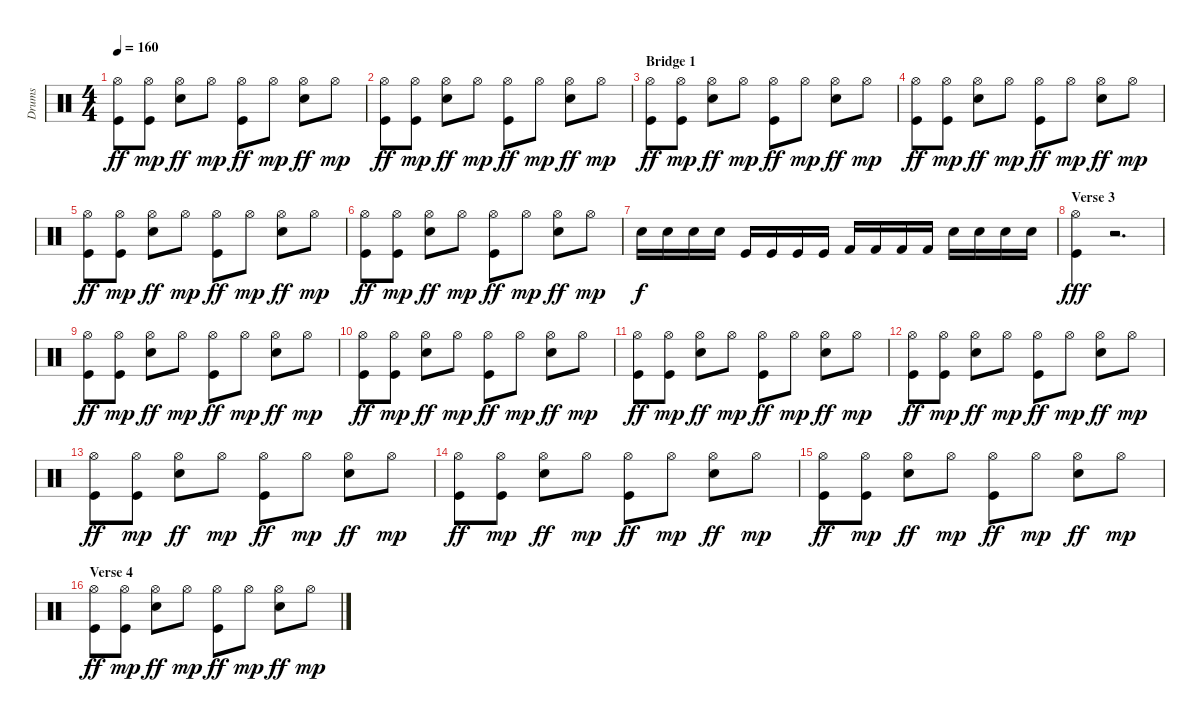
\track ("Drums" "Drums") {instrument percussion}
\staff {score}
\articulation defaults
\ts (4 4)
\tempo 160
\clef neutral
\ks c
("Kick (hit)" "Hi-Hat (open)").8{dy ff} ("Kick (hit)" "Hi-Hat (open)").8{dy mp} ("Electric Snare (hit)" "Hi-Hat (open)").8{dy ff} "Hi-Hat (open)".8{dy mp} ("Kick (hit)" "Hi-Hat (open)").8{dy ff} "Hi-Hat (open)".8{dy mp} ("Electric Snare (hit)" "Hi-Hat (open)").8{dy ff} "Hi-Hat (open)".8{dy mp} |
("Kick (hit)" "Hi-Hat (open)").8{dy ff} ("Kick (hit)" "Hi-Hat (open)").8{dy mp} ("Electric Snare (hit)" "Hi-Hat (open)").8{dy ff} "Hi-Hat (open)".8{dy mp} ("Kick (hit)" "Hi-Hat (open)").8{dy ff} "Hi-Hat (open)".8{dy mp} ("Electric Snare (hit)" "Hi-Hat (open)").8{dy ff} "Hi-Hat (open)".8{dy mp} |
\section ("" "Bridge 1")
("Kick (hit)" "Hi-Hat (open)").8{dy ff} ("Kick (hit)" "Hi-Hat (open)").8{dy mp} ("Electric Snare (hit)" "Hi-Hat (open)").8{dy ff} "Hi-Hat (open)".8{dy mp} ("Kick (hit)" "Hi-Hat (open)").8{dy ff} "Hi-Hat (open)".8{dy mp} ("Electric Snare (hit)" "Hi-Hat (open)").8{dy ff} "Hi-Hat (open)".8{dy mp} |
("Kick (hit)" "Hi-Hat (open)").8{dy ff} ("Kick (hit)" "Hi-Hat (open)").8{dy mp} ("Electric Snare (hit)" "Hi-Hat (open)").8{dy ff} "Hi-Hat (open)".8{dy mp} ("Kick (hit)" "Hi-Hat (open)").8{dy ff} "Hi-Hat (open)".8{dy mp} ("Electric Snare (hit)" "Hi-Hat (open)").8{dy ff} "Hi-Hat (open)".8{dy mp} |
("Kick (hit)" "Hi-Hat (open)").8{dy ff} ("Kick (hit)" "Hi-Hat (open)").8{dy mp} ("Electric Snare (hit)" "Hi-Hat (open)").8{dy ff} "Hi-Hat (open)".8{dy mp} ("Kick (hit)" "Hi-Hat (open)").8{dy ff} "Hi-Hat (open)".8{dy mp} ("Electric Snare (hit)" "Hi-Hat (open)").8{dy ff} "Hi-Hat (open)".8{dy mp} |
("Kick (hit)" "Hi-Hat (open)").8{dy ff} ("Kick (hit)" "Hi-Hat (open)").8{dy mp} ("Electric Snare (hit)" "Hi-Hat (open)").8{dy ff} "Hi-Hat (open)".8{dy mp} ("Kick (hit)" "Hi-Hat (open)").8{dy ff} "Hi-Hat (open)".8{dy mp} ("Electric Snare (hit)" "Hi-Hat (open)").8{dy ff} "Hi-Hat (open)".8{dy mp} |
"Electric Snare (hit)".16{dy f} "Electric Snare (hit)".16 "Electric Snare (hit)".16 "Electric Snare (hit)".16 "Kick (hit)".16 "Kick (hit)".16 "Kick (hit)".16 "Kick (hit)".16 "Kick (hit) 2".16 "Kick (hit) 2".16 "Kick (hit) 2".16 "Kick (hit) 2".16 "Electric Snare (hit)".16 "Electric Snare (hit)".16 "Electric Snare (hit)".16 "Electric Snare (hit)".16 |
\section ("" "Verse 3")
("Kick (hit)" "Hi-Hat (open)").4{dy fff} r.2{d} |
("Kick (hit)" "Hi-Hat (open)").8{dy ff} ("Kick (hit)" "Hi-Hat (open)").8{dy mp} ("Electric Snare (hit)" "Hi-Hat (open)").8{dy ff} "Hi-Hat (open)".8{dy mp} ("Kick (hit)" "Hi-Hat (open)").8{dy ff} "Hi-Hat (open)".8{dy mp} ("Electric Snare (hit)" "Hi-Hat (open)").8{dy ff} "Hi-Hat (open)".8{dy mp} |
("Kick (hit)" "Hi-Hat (open)").8{dy ff} ("Kick (hit)" "Hi-Hat (open)").8{dy mp} ("Electric Snare (hit)" "Hi-Hat (open)").8{dy ff} "Hi-Hat (open)".8{dy mp} ("Kick (hit)" "Hi-Hat (open)").8{dy ff} "Hi-Hat (open)".8{dy mp} ("Electric Snare (hit)" "Hi-Hat (open)").8{dy ff} "Hi-Hat (open)".8{dy mp} |
("Kick (hit)" "Hi-Hat (open)").8{dy ff} ("Kick (hit)" "Hi-Hat (open)").8{dy mp} ("Electric Snare (hit)" "Hi-Hat (open)").8{dy ff} "Hi-Hat (open)".8{dy mp} ("Kick (hit)" "Hi-Hat (open)").8{dy ff} "Hi-Hat (open)".8{dy mp} ("Electric Snare (hit)" "Hi-Hat (open)").8{dy ff} "Hi-Hat (open)".8{dy mp} |
("Kick (hit)" "Hi-Hat (open)").8{dy ff} ("Kick (hit)" "Hi-Hat (open)").8{dy mp} ("Electric Snare (hit)" "Hi-Hat (open)").8{dy ff} "Hi-Hat (open)".8{dy mp} ("Kick (hit)" "Hi-Hat (open)").8{dy ff} "Hi-Hat (open)".8{dy mp} ("Electric Snare (hit)" "Hi-Hat (open)").8{dy ff} "Hi-Hat (open)".8{dy mp} |
("Kick (hit)" "Hi-Hat (open)").8{dy ff} ("Kick (hit)" "Hi-Hat (open)").8{dy mp} ("Electric Snare (hit)" "Hi-Hat (open)").8{dy ff} "Hi-Hat (open)".8{dy mp} ("Kick (hit)" "Hi-Hat (open)").8{dy ff} "Hi-Hat (open)".8{dy mp} ("Electric Snare (hit)" "Hi-Hat (open)").8{dy ff} "Hi-Hat (open)".8{dy mp} |
("Kick (hit)" "Hi-Hat (open)").8{dy ff} ("Kick (hit)" "Hi-Hat (open)").8{dy mp} ("Electric Snare (hit)" "Hi-Hat (open)").8{dy ff} "Hi-Hat (open)".8{dy mp} ("Kick (hit)" "Hi-Hat (open)").8{dy ff} "Hi-Hat (open)".8{dy mp} ("Electric Snare (hit)" "Hi-Hat (open)").8{dy ff} "Hi-Hat (open)".8{dy mp} |
("Kick (hit)" "Hi-Hat (open)").8{dy ff} ("Kick (hit)" "Hi-Hat (open)").8{dy mp} ("Electric Snare (hit)" "Hi-Hat (open)").8{dy ff} "Hi-Hat (open)".8{dy mp} ("Kick (hit)" "Hi-Hat (open)").8{dy ff} "Hi-Hat (open)".8{dy mp} ("Electric Snare (hit)" "Hi-Hat (open)").8{dy ff} "Hi-Hat (open)".8{dy mp} |
\section ("" "Verse 4")
("Kick (hit)" "Hi-Hat (open)").8{dy ff} ("Kick (hit)" "Hi-Hat (open)").8{dy mp} ("Electric Snare (hit)" "Hi-Hat (open)").8{dy ff} "Hi-Hat (open)".8{dy mp} ("Kick (hit)" "Hi-Hat (open)").8{dy ff} "Hi-Hat (open)".8{dy mp} ("Electric Snare (hit)" "Hi-Hat (open)").8{dy ff} "Hi-Hat (open)".8{dy mp}
